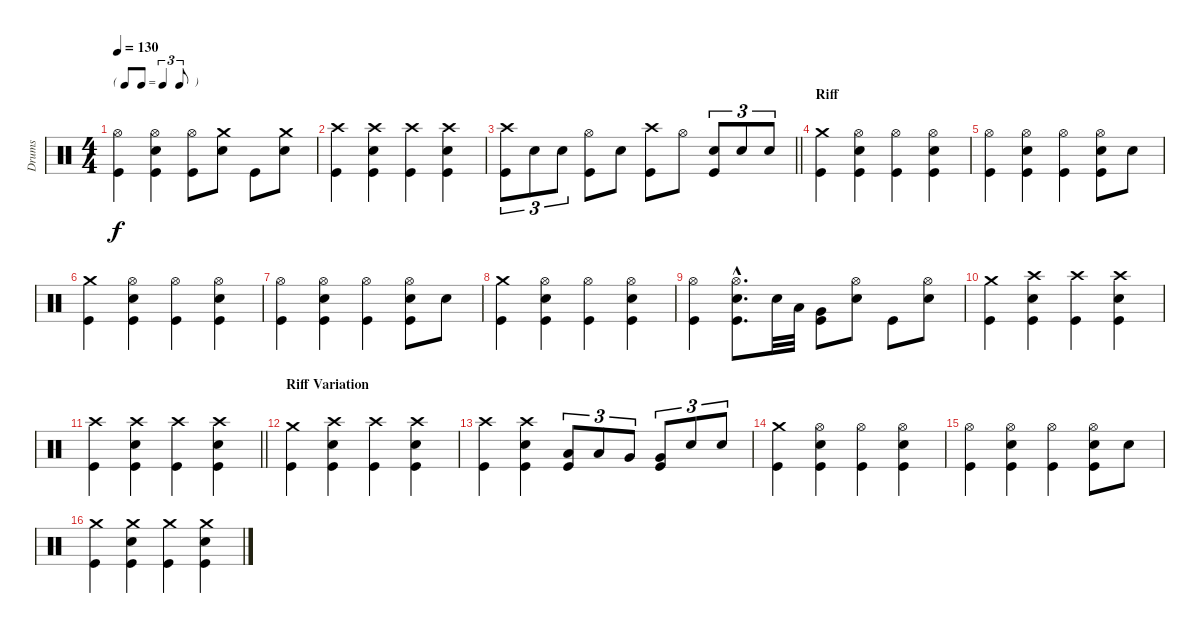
\track ("Drums" "Drums") {instrument percussion}
\staff {score}
\articulation defaults
\ts (4 4)
\tf triplet8th
\tempo 130
\clef neutral
\ks c
("Hi-Hat (open)" "Kick (hit)").4{dy f} ("Hi-Hat (open)" "Snare (hit) 2" "Kick (hit)").4 ("Hi-Hat (open)" "Kick (hit)").8 ("Crash medium (hit)" "Snare (hit) 2").8 "Kick (hit)".8 ("Crash medium (hit)" "Snare (hit) 2").8 |
("Crash high (hit)" "Kick (hit)").4 ("Crash high (hit)" "Kick (hit)" "Snare (hit) 2").4 ("Crash high (hit)" "Kick (hit)").4 ("Crash high (hit)" "Kick (hit)" "Snare (hit) 2").4 |
\barLineRight lightlight
("Crash high (hit)" "Kick (hit)").8{tu (3 2)} "Snare (hit) 2".8{tu (3 2)} "Snare (hit) 2".8{tu (3 2)} ("Kick (hit)" "Hi-Hat (open)").8 "Snare (hit) 2".8 ("Crash high (hit)" "Kick (hit)").8 "Hi-Hat (open)".8 ("Kick (hit)" "Snare (hit) 2").8{tu (3 2)} "Snare (hit) 2".8{tu (3 2)} "Snare (hit) 2".8{tu (3 2)} |
\section ("" "Riff")
("Crash medium (hit)" "Kick (hit)").4 ("Hi-Hat (open)" "Snare (hit) 2" "Kick (hit)").4 ("Hi-Hat (open)" "Kick (hit)").4 ("Hi-Hat (open)" "Snare (hit) 2" "Kick (hit)").4 |
("Hi-Hat (open)" "Kick (hit)").4 ("Hi-Hat (open)" "Snare (hit) 2" "Kick (hit)").4 ("Hi-Hat (open)" "Kick (hit)").4 ("Hi-Hat (open)" "Snare (hit) 2" "Kick (hit)").8 "Snare (hit) 2".8 |
("Crash medium (hit)" "Kick (hit)").4 ("Hi-Hat (open)" "Snare (hit) 2" "Kick (hit)").4 ("Hi-Hat (open)" "Kick (hit)").4 ("Hi-Hat (open)" "Snare (hit) 2" "Kick (hit)").4 |
("Hi-Hat (open)" "Kick (hit)").4 ("Hi-Hat (open)" "Snare (hit) 2" "Kick (hit)").4 ("Hi-Hat (open)" "Kick (hit)").4 ("Hi-Hat (open)" "Snare (hit) 2" "Kick (hit)").8 "Snare (hit) 2".8 |
("Crash medium (hit)" "Kick (hit)").4 ("Hi-Hat (open)" "Snare (hit) 2" "Kick (hit)").4 ("Hi-Hat (open)" "Kick (hit)").4 ("Hi-Hat (open)" "Snare (hit) 2" "Kick (hit)").4 |
("Hi-Hat (open)" "Kick (hit)").4 ("Hi-Hat (open)"{hac} "Snare (hit) 2"{hac} "Kick (hit)"{hac}).8{d} "Snare (hit) 2".32 "Low Tom (hit)".32 ("Very Low Tom (hit)" "Kick (hit)").8 ("Hi-Hat (open)" "Snare (hit) 2").8 "Kick (hit)".8 ("Snare (hit) 2" "Hi-Hat (open)").8 |
("Crash medium (hit)" "Kick (hit)").4 ("Crash high (hit)" "Kick (hit)" "Snare (hit) 2").4 ("Crash high (hit)" "Kick (hit)").4 ("Crash high (hit)" "Kick (hit)" "Snare (hit) 2").4 |
\barLineRight lightlight
("Crash high (hit)" "Kick (hit)").4 ("Crash high (hit)" "Kick (hit)" "Snare (hit) 2").4 ("Crash high (hit)" "Kick (hit)").4 ("Crash high (hit)" "Kick (hit)" "Snare (hit) 2").4 |
\section ("" "Riff Variation")
("Crash medium (hit)" "Kick (hit)").4 ("Crash high (hit)" "Kick (hit)" "Snare (hit) 2").4 ("Crash high (hit)" "Kick (hit)").4 ("Crash high (hit)" "Kick (hit)" "Snare (hit) 2").4 |
("Crash high (hit)" "Kick (hit)").4 ("Crash high (hit)" "Kick (hit)" "Snare (hit) 2").4 ("Kick (hit)" "Low Tom (hit)").8{tu (3 2)} "Low Tom (hit)".8{tu (3 2)} "Very Low Tom (hit)".8{tu (3 2)} ("Kick (hit)" "Very Low Tom (hit)").8{tu (3 2)} "Snare (hit) 2".8{tu (3 2)} "Snare (hit) 2".8{tu (3 2)} |
("Crash medium (hit)" "Kick (hit)").4 ("Kick (hit)" "Snare (hit) 2" "Hi-Hat (open)").4 ("Kick (hit)" "Hi-Hat (open)").4 ("Kick (hit)" "Hi-Hat (open)" "Snare (hit) 2").4 |
("Kick (hit)" "Hi-Hat (open)").4 ("Kick (hit)" "Hi-Hat (open)" "Snare (hit) 2").4 ("Kick (hit)" "Hi-Hat (open)").4 ("Kick (hit)" "Hi-Hat (open)" "Snare (hit) 2").8 "Snare (hit) 2".8 |
("Crash medium (hit)" "Kick (hit)").4 ("Crash medium (hit)" "Kick (hit)" "Snare (hit) 2").4 ("Crash medium (hit)" "Kick (hit)").4 ("Crash medium (hit)" "Kick (hit)" "Snare (hit) 2").4
